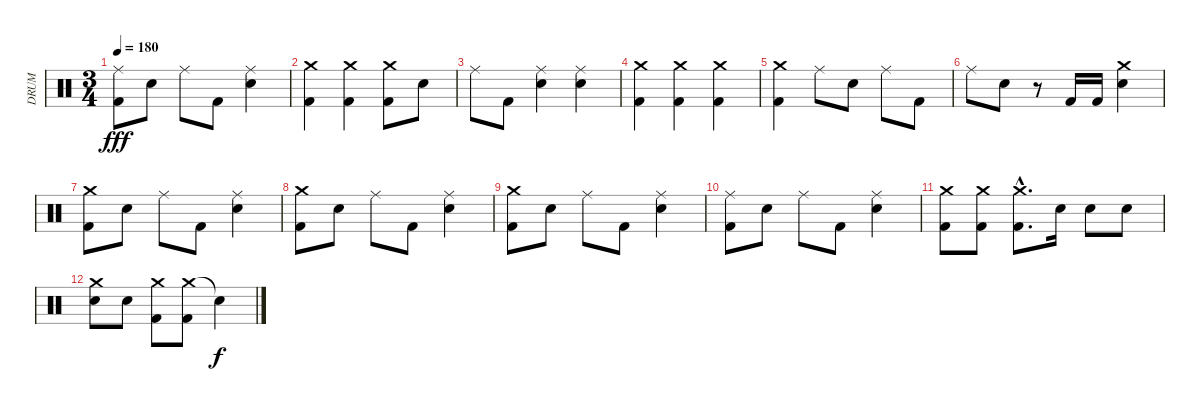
\track ("DRUM" "DRUM") {instrument percussion}
\staff {score}
\articulation defaults
\ts (3 4)
\tempo 180
\clef neutral
\ks c
("Ride (middle)" "Kick (hit) 2").8{dy fff} "Snare (hit) 2".8 "Ride (middle)".8 "Kick (hit) 2".8 ("Ride (middle)" "Snare (hit) 2").4 |
("Crash medium (hit)" "Kick (hit) 2").4 ("Crash medium (hit)" "Kick (hit) 2").4 ("Crash medium (hit)" "Kick (hit) 2").8 "Snare (hit) 2".8 |
"Ride (middle)".8 "Kick (hit) 2".8 ("Ride (middle)" "Snare (hit) 2").4 ("Ride (middle)" "Snare (hit) 2").4 |
("Crash medium (hit)" "Kick (hit) 2").4 ("Crash medium (hit)" "Kick (hit) 2").4 ("Crash medium (hit)" "Kick (hit) 2").4 |
("Crash medium (hit)" "Kick (hit) 2").4 "Ride (middle)".8 "Snare (hit) 2".8 "Ride (middle)".8 "Kick (hit) 2".8 |
"Ride (middle)".8 "Snare (hit) 2".8 r.8 "Kick (hit) 2".16 "Kick (hit) 2".16 ("Crash medium (hit)" "Snare (hit) 2").4 |
("Crash medium (hit)" "Kick (hit) 2").8 "Snare (hit) 2".8 "Ride (middle)".8 "Kick (hit) 2".8 ("Ride (middle)" "Snare (hit) 2").4 |
("Crash medium (hit)" "Kick (hit) 2").8 "Snare (hit) 2".8 "Ride (middle)".8 "Kick (hit) 2".8 ("Ride (middle)" "Snare (hit) 2").4 |
("Crash medium (hit)" "Kick (hit) 2").8 "Snare (hit) 2".8 "Ride (middle)".8 "Kick (hit) 2".8 ("Ride (middle)" "Snare (hit) 2").4 |
("Ride (middle)" "Kick (hit) 2").8 "Snare (hit) 2".8 "Ride (middle)".8 "Kick (hit) 2".8 ("Ride (middle)" "Snare (hit) 2").4 |
("Crash medium (hit)" "Kick (hit) 2").8 ("Crash medium (hit)" "Kick (hit) 2").8 ("Crash medium (hit)"{hac} "Kick (hit) 2"{hac}).8{d} "Snare (hit) 2".16 "Snare (hit) 2".8 "Snare (hit) 2".8 |
("Crash medium (hit)" "Snare (hit) 2").8 "Snare (hit) 2".8 ("Crash medium (hit)" "Kick (hit) 2").8 ("Crash medium (hit)" "Kick (hit) 2").8 "Snare (hit)"{t}.4{dy f}
